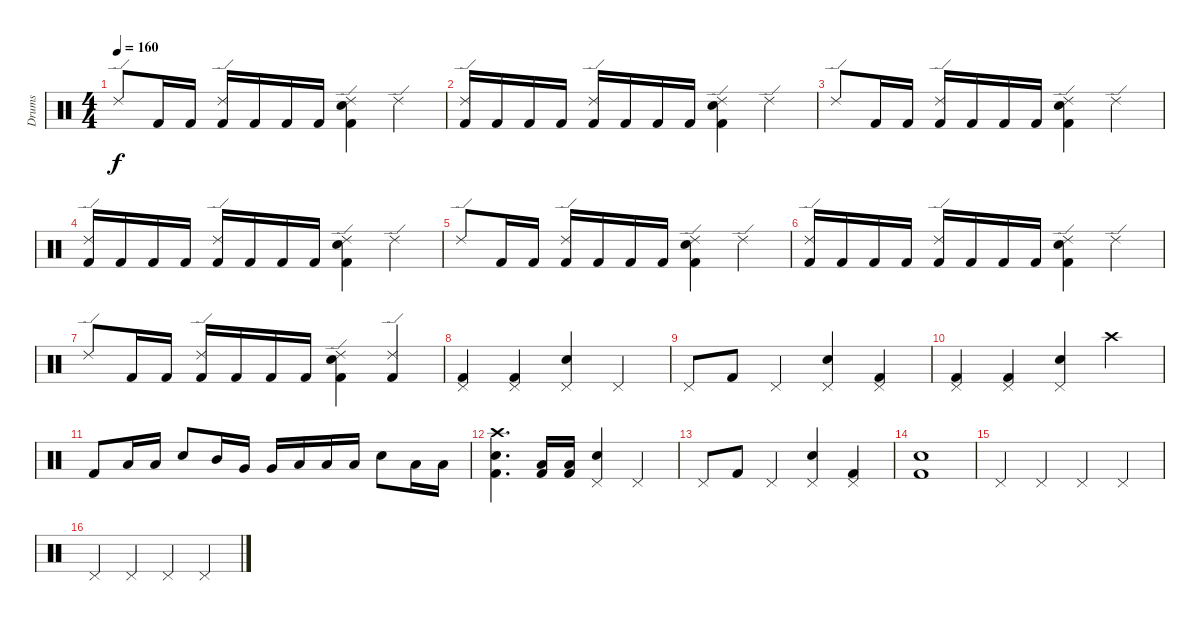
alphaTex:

\track ("Drums" "Drums") {instrument percussion}
\staff {score}
\articulation defaults
\ts (4 4)
\tempo 160
\clef neutral
\ks c "Ride (edge) 2".8{dy f} "Kick (hit) 2".16 "Kick (hit) 2".16
("Ride (edge) 2" "Kick (hit) 2").16 "Kick (hit) 2".16 "Kick (hit) 2".16 "Kick (hit) 2".16 ("Ride (edge) 2" "Snare (hit) 2" "Kick (hit) 2").4 "Ride (edge) 2".4 |
("Ride (edge) 2" "Kick (hit) 2").16 "Kick (hit) 2".16 "Kick (hit) 2".16 "Kick (hit) 2".16 ("Ride (edge) 2" "Kick (hit) 2").16 "Kick (hit) 2".16 "Kick (hit) 2".16 "Kick (hit) 2".16 ("Ride (edge) 2" "Snare (hit) 2" "Kick (hit) 2").4 "Ride (edge) 2".4 |
"Ride (edge) 2".8 "Kick (hit) 2".16 "Kick (hit) 2".16 ("Ride (edge) 2" "Kick (hit) 2").16 "Kick (hit) 2".16 "Kick (hit) 2".16 "Kick (hit) 2".16 ("Ride (edge) 2" "Snare (hit) 2" "Kick (hit) 2").4 "Ride (edge) 2".4 |
("Ride (edge) 2" "Kick (hit) 2").16 "Kick (hit) 2".16 "Kick (hit) 2".16 "Kick (hit) 2".16 ("Ride (edge) 2" "Kick (hit) 2").16 "Kick (hit) 2".16 "Kick (hit) 2".16 "Kick (hit) 2".16 ("Ride (edge) 2" "Snare (hit) 2" "Kick (hit) 2").4 "Ride (edge) 2".4 |
"Ride (edge) 2".8 "Kick (hit) 2".16 "Kick (hit) 2".16 ("Ride (edge) 2" "Kick (hit) 2").16 "Kick (hit) 2".16 "Kick (hit) 2".16 "Kick (hit) 2".16 ("Ride (edge) 2" "Snare (hit) 2" "Kick (hit) 2").4 "Ride (edge) 2".4 |
("Ride (edge) 2" "Kick (hit) 2").16 "Kick (hit) 2".16 "Kick (hit) 2".16 "Kick (hit) 2".16 ("Ride (edge) 2" "Kick (hit) 2").16 "Kick (hit) 2".16 "Kick (hit) 2".16 "Kick (hit) 2".16 ("Ride (edge) 2" "Snare (hit) 2" "Kick (hit) 2").4 "Ride (edge) 2".4 |
"Ride (edge) 2".8 "Kick (hit) 2".16 "Kick (hit) 2".16 ("Ride (edge) 2" "Kick (hit) 2").16 "Kick (hit) 2".16 "Kick (hit) 2".16 "Kick (hit) 2".16 ("Ride (edge) 2" "Snare (hit) 2" "Kick (hit) 2").4 ("Ride (edge) 2" "Kick (hit) 2").4 |
("Pedal Hi-Hat (hit)" "Kick (hit) 2").4 ("Pedal Hi-Hat (hit)" "Kick (hit) 2").4 ("Pedal Hi-Hat (hit)" "Snare (hit) 2").4 "Pedal Hi-Hat (hit)".4 |
"Pedal Hi-Hat (hit)".8 "Kick (hit) 2".8 "Pedal Hi-Hat (hit)".4 ("Pedal Hi-Hat (hit)" "Snare (hit) 2").4 ("Pedal Hi-Hat (hit)" "Kick (hit) 2").4 |
("Pedal Hi-Hat (hit)" "Kick (hit) 2").4 ("Pedal Hi-Hat (hit)" "Kick (hit) 2").4 ("Pedal Hi-Hat (hit)" "Snare (hit) 2").4 "Crash high (hit)".4 |
"Kick (hit) 2".8 "Low Tom (hit)".16 "Low Tom (hit)".16 "Snare (hit) 2".8 "Mid Tom (hit)".16 "Very Low Tom (hit)".16 "Very Low Tom (hit)".16 "Low Tom (hit)".16 "Low Tom (hit)".16 "Low Floor Tom (hit)".16 "Snare (hit) 2".8 "Low Floor Tom (hit)".16 "Low Floor Tom (hit)".16 |
("Crash high (hit)" "Snare (hit) 2" "Kick (hit) 2").4{d} ("Low Tom (hit)" "Kick (hit) 2").16 ("Low Tom (hit)" "Kick (hit) 2").16 ("Pedal Hi-Hat (hit)" "Snare (hit) 2").4 "Pedal Hi-Hat (hit)".4 |
"Pedal Hi-Hat (hit)".8 "Kick (hit) 2".8 "Pedal Hi-Hat (hit)".4 ("Pedal Hi-Hat (hit)" "Snare (hit) 2").4 ("Pedal Hi-Hat (hit)" "Kick (hit) 2").4 |
("Snare (hit) 2" "Kick (hit) 2").1 |
"Pedal Hi-Hat (hit)".4 "Pedal Hi-Hat (hit)".4 "Pedal Hi-Hat (hit)".4 "Pedal Hi-Hat (hit)".4 |
"Pedal Hi-Hat (hit)".4 "Pedal Hi-Hat (hit)".4 "Pedal Hi-Hat (hit)".4 "Pedal Hi-Hat (hit)".4
